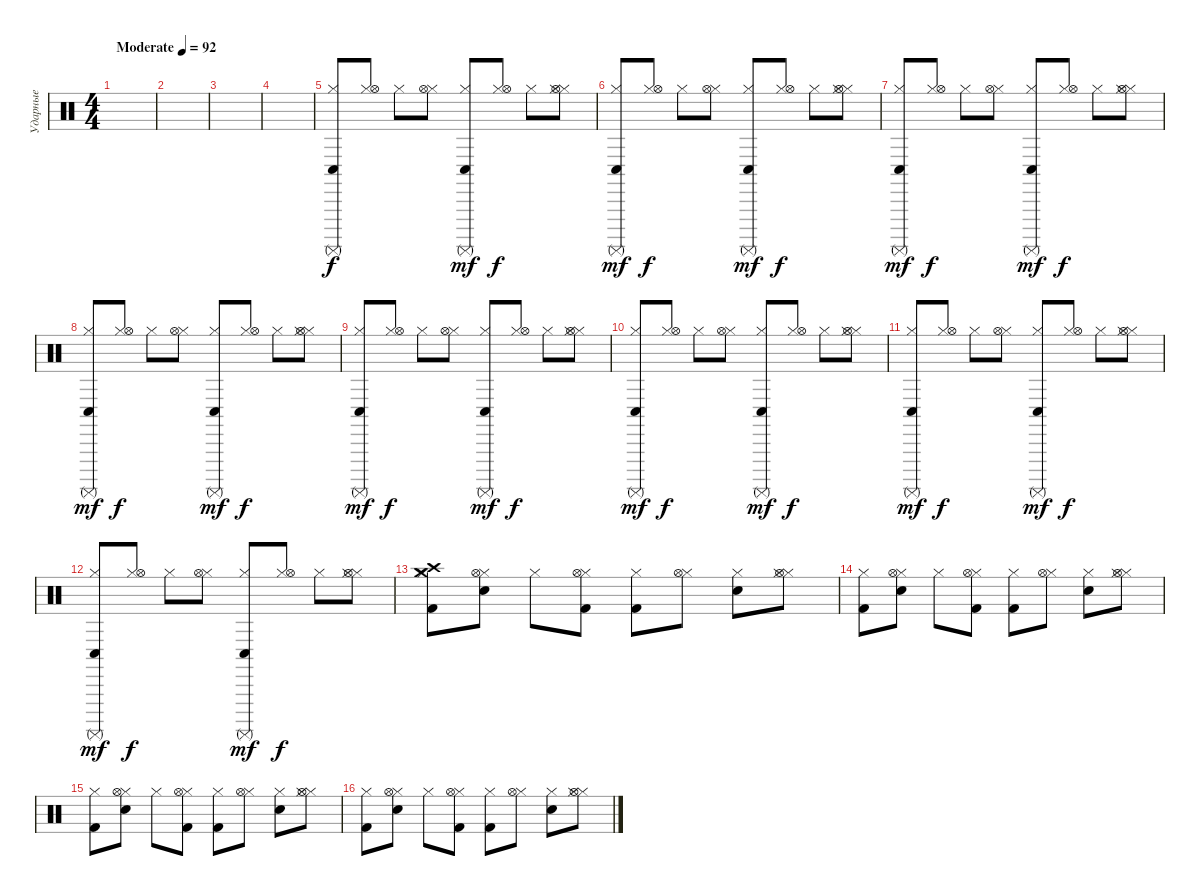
\track ("Ударные" "Ударные") {instrument percussion}
\staff {score}
\articulation defaults
\ts (4 4)
\tempo (92 "Moderate")
\clef neutral
\ks c
|
|
|
|
("Hi-Hat (closed)" "Conga low (hit)" "Surdo (mute)").8 ("Hi-Hat (closed)" "Hi-Hat (open)").8{dy f} "Hi-Hat (closed)".8 ("Hi-Hat (closed)" "Hi-Hat (open)").8 ("Hi-Hat (closed)" "Conga low (hit)" "Surdo (mute)").8{dy mf} ("Hi-Hat (closed)" "Hi-Hat (open)").8{dy f} "Hi-Hat (closed)".8 ("Hi-Hat (closed)" "Hi-Hat (closed)" "Hi-Hat (open)").8 |
("Hi-Hat (closed)" "Conga low (hit)" "Surdo (mute)").8{dy mf} ("Hi-Hat (closed)" "Hi-Hat (open)").8{dy f} "Hi-Hat (closed)".8 ("Hi-Hat (closed)" "Hi-Hat (open)").8 ("Hi-Hat (closed)" "Conga low (hit)" "Surdo (mute)").8{dy mf} ("Hi-Hat (closed)" "Hi-Hat (open)").8{dy f} "Hi-Hat (closed)".8 ("Hi-Hat (closed)" "Hi-Hat (closed)" "Hi-Hat (open)").8 |
("Hi-Hat (closed)" "Conga low (hit)" "Surdo (mute)").8{dy mf} ("Hi-Hat (closed)" "Hi-Hat (open)").8{dy f} "Hi-Hat (closed)".8 ("Hi-Hat (closed)" "Hi-Hat (open)").8 ("Hi-Hat (closed)" "Conga low (hit)" "Surdo (mute)").8{dy mf} ("Hi-Hat (closed)" "Hi-Hat (open)").8{dy f} "Hi-Hat (closed)".8 ("Hi-Hat (closed)" "Hi-Hat (closed)" "Hi-Hat (open)").8 |
("Hi-Hat (closed)" "Conga low (hit)" "Surdo (mute)").8{dy mf} ("Hi-Hat (closed)" "Hi-Hat (open)").8{dy f} "Hi-Hat (closed)".8 ("Hi-Hat (closed)" "Hi-Hat (open)").8 ("Hi-Hat (closed)" "Conga low (hit)" "Surdo (mute)").8{dy mf} ("Hi-Hat (closed)" "Hi-Hat (open)").8{dy f} "Hi-Hat (closed)".8 ("Hi-Hat (closed)" "Hi-Hat (closed)" "Hi-Hat (open)").8 |
("Hi-Hat (closed)" "Conga low (hit)" "Surdo (mute)").8{dy mf} ("Hi-Hat (closed)" "Hi-Hat (open)").8{dy f} "Hi-Hat (closed)".8 ("Hi-Hat (closed)" "Hi-Hat (open)").8 ("Hi-Hat (closed)" "Conga low (hit)" "Surdo (mute)").8{dy mf} ("Hi-Hat (closed)" "Hi-Hat (open)").8{dy f} "Hi-Hat (closed)".8 ("Hi-Hat (closed)" "Hi-Hat (closed)" "Hi-Hat (open)").8 |
("Hi-Hat (closed)" "Conga low (hit)" "Surdo (mute)").8{dy mf} ("Hi-Hat (closed)" "Hi-Hat (open)").8{dy f} "Hi-Hat (closed)".8 ("Hi-Hat (closed)" "Hi-Hat (open)").8 ("Hi-Hat (closed)" "Conga low (hit)" "Surdo (mute)").8{dy mf} ("Hi-Hat (closed)" "Hi-Hat (open)").8{dy f} "Hi-Hat (closed)".8 ("Hi-Hat (closed)" "Hi-Hat (closed)" "Hi-Hat (open)").8 |
("Hi-Hat (closed)" "Conga low (hit)" "Surdo (mute)").8{dy mf} ("Hi-Hat (closed)" "Hi-Hat (open)").8{dy f} "Hi-Hat (closed)".8 ("Hi-Hat (closed)" "Hi-Hat (open)").8 ("Hi-Hat (closed)" "Conga low (hit)" "Surdo (mute)").8{dy mf} ("Hi-Hat (closed)" "Hi-Hat (open)").8{dy f} "Hi-Hat (closed)".8 ("Hi-Hat (closed)" "Hi-Hat (closed)" "Hi-Hat (open)").8 |
("Hi-Hat (closed)" "Conga low (hit)" "Surdo (mute)").8{dy mf} ("Hi-Hat (closed)" "Hi-Hat (open)").8{dy f} "Hi-Hat (closed)".8 ("Hi-Hat (closed)" "Hi-Hat (open)").8 ("Hi-Hat (closed)" "Conga low (hit)" "Surdo (mute)").8{dy mf} ("Hi-Hat (closed)" "Hi-Hat (open)").8{dy f} "Hi-Hat (closed)".8 ("Hi-Hat (closed)" "Hi-Hat (closed)" "Hi-Hat (open)").8 |
("Kick (hit) 2" "Hi-Hat (closed)" "Crash high (hit)" "Crash medium (hit)").8 ("Hi-Hat (closed)" "Hi-Hat (open)" "Snare (hit) 2").8 "Hi-Hat (closed)".8 ("Kick (hit) 2" "Hi-Hat (closed)" "Hi-Hat (open)").8 ("Kick (hit) 2" "Hi-Hat (closed)").8 ("Hi-Hat (closed)" "Hi-Hat (open)").8 ("Snare (hit) 2" "Hi-Hat (closed)").8 ("Hi-Hat (closed)" "Hi-Hat (closed)" "Hi-Hat (open)").8 |
("Kick (hit) 2" "Hi-Hat (closed)").8 ("Hi-Hat (closed)" "Hi-Hat (open)" "Snare (hit) 2").8 "Hi-Hat (closed)".8 ("Kick (hit) 2" "Hi-Hat (closed)" "Hi-Hat (open)").8 ("Kick (hit) 2" "Hi-Hat (closed)").8 ("Hi-Hat (closed)" "Hi-Hat (open)").8 ("Snare (hit) 2" "Hi-Hat (closed)").8 ("Hi-Hat (closed)" "Hi-Hat (closed)" "Hi-Hat (open)").8 |
("Kick (hit) 2" "Hi-Hat (closed)").8 ("Hi-Hat (closed)" "Hi-Hat (open)" "Snare (hit) 2").8 "Hi-Hat (closed)".8 ("Kick (hit) 2" "Hi-Hat (closed)" "Hi-Hat (open)").8 ("Kick (hit) 2" "Hi-Hat (closed)").8 ("Hi-Hat (closed)" "Hi-Hat (open)").8 ("Snare (hit) 2" "Hi-Hat (closed)").8 ("Hi-Hat (closed)" "Hi-Hat (closed)" "Hi-Hat (open)").8 |
("Kick (hit) 2" "Hi-Hat (closed)").8 ("Hi-Hat (closed)" "Hi-Hat (open)" "Snare (hit) 2").8 "Hi-Hat (closed)".8 ("Kick (hit) 2" "Hi-Hat (closed)" "Hi-Hat (open)").8 ("Kick (hit) 2" "Hi-Hat (closed)").8 ("Hi-Hat (closed)" "Hi-Hat (open)").8 ("Snare (hit) 2" "Hi-Hat (closed)").8 ("Hi-Hat (closed)" "Hi-Hat (closed)" "Hi-Hat (open)").8
